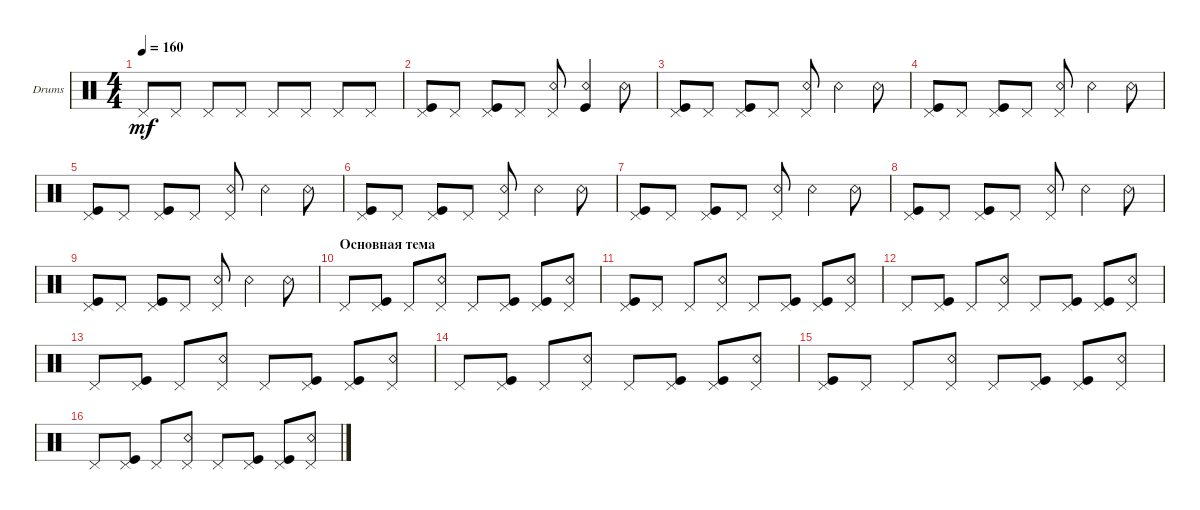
\bracketExtendMode groupsimilarinstruments
\firstSystemTrackNameOrientation horizontal
\otherSystemsTrackNameOrientation horizontal
\track ("Drumkit" "Drums") {instrument percussion}
\staff {score}
\articulation defaults
\ts (4 4)
\tempo 160
\clef neutral
\ks c "Pedal Hi-Hat (hit)".8{dy mf} "Pedal Hi-Hat (hit)".8 "Pedal Hi-Hat (hit)".8 "Pedal Hi-Hat (hit)".8 "Pedal Hi-Hat (hit)".8 "Pedal Hi-Hat (hit)".8 "Pedal Hi-Hat (hit)".8 "Pedal Hi-Hat (hit)".8
|
("Pedal Hi-Hat (hit)" "Kick (hit)").8 "Pedal Hi-Hat (hit)".8 ("Pedal Hi-Hat (hit)" "Kick (hit)").8 "Pedal Hi-Hat (hit)".8 ("Pedal Hi-Hat (hit)" "Snare (rim shot)").8 ("Snare (rim shot)" "Kick (hit)").4 "Snare (rim shot)".8 |
("Pedal Hi-Hat (hit)" "Kick (hit)").8 "Pedal Hi-Hat (hit)".8 ("Pedal Hi-Hat (hit)" "Kick (hit)").8 "Pedal Hi-Hat (hit)".8 ("Pedal Hi-Hat (hit)" "Snare (rim shot)").8 "Snare (rim shot)".4 "Snare (rim shot)".8 |
("Pedal Hi-Hat (hit)" "Kick (hit)").8 "Pedal Hi-Hat (hit)".8 ("Pedal Hi-Hat (hit)" "Kick (hit)").8 "Pedal Hi-Hat (hit)".8 ("Pedal Hi-Hat (hit)" "Snare (rim shot)").8 "Snare (rim shot)".4 "Snare (rim shot)".8 |
("Pedal Hi-Hat (hit)" "Kick (hit)").8 "Pedal Hi-Hat (hit)".8 ("Pedal Hi-Hat (hit)" "Kick (hit)").8 "Pedal Hi-Hat (hit)".8 ("Pedal Hi-Hat (hit)" "Snare (rim shot)").8 "Snare (rim shot)".4 "Snare (rim shot)".8 |
("Pedal Hi-Hat (hit)" "Kick (hit)").8 "Pedal Hi-Hat (hit)".8 ("Pedal Hi-Hat (hit)" "Kick (hit)").8 "Pedal Hi-Hat (hit)".8 ("Pedal Hi-Hat (hit)" "Snare (rim shot)").8 "Snare (rim shot)".4 "Snare (rim shot)".8 |
("Pedal Hi-Hat (hit)" "Kick (hit)").8 "Pedal Hi-Hat (hit)".8 ("Pedal Hi-Hat (hit)" "Kick (hit)").8 "Pedal Hi-Hat (hit)".8 ("Pedal Hi-Hat (hit)" "Snare (rim shot)").8 "Snare (rim shot)".4 "Snare (rim shot)".8 |
("Pedal Hi-Hat (hit)" "Kick (hit)").8 "Pedal Hi-Hat (hit)".8 ("Pedal Hi-Hat (hit)" "Kick (hit)").8 "Pedal Hi-Hat (hit)".8 ("Pedal Hi-Hat (hit)" "Snare (rim shot)").8 "Snare (rim shot)".4 "Snare (rim shot)".8 |
("Pedal Hi-Hat (hit)" "Kick (hit)").8 "Pedal Hi-Hat (hit)".8 ("Pedal Hi-Hat (hit)" "Kick (hit)").8 "Pedal Hi-Hat (hit)".8 ("Pedal Hi-Hat (hit)" "Snare (rim shot)").8 "Snare (rim shot)".4 "Snare (rim shot)".8 |
\section ("" "Основная тема")
"Pedal Hi-Hat (hit)".8 ("Pedal Hi-Hat (hit)" "Kick (hit)").8 "Pedal Hi-Hat (hit)".8 ("Pedal Hi-Hat (hit)" "Snare (rim shot)").8 "Pedal Hi-Hat (hit)".8 ("Pedal Hi-Hat (hit)" "Kick (hit)").8 ("Pedal Hi-Hat (hit)" "Kick (hit)").8 ("Pedal Hi-Hat (hit)" "Snare (rim shot)").8 |
("Pedal Hi-Hat (hit)" "Kick (hit)").8 "Pedal Hi-Hat (hit)".8 "Pedal Hi-Hat (hit)".8 ("Pedal Hi-Hat (hit)" "Snare (rim shot)").8 "Pedal Hi-Hat (hit)".8 ("Pedal Hi-Hat (hit)" "Kick (hit)").8 ("Pedal Hi-Hat (hit)" "Kick (hit)").8 ("Pedal Hi-Hat (hit)" "Snare (rim shot)").8 |
"Pedal Hi-Hat (hit)".8 ("Pedal Hi-Hat (hit)" "Kick (hit)").8 "Pedal Hi-Hat (hit)".8 ("Pedal Hi-Hat (hit)" "Snare (rim shot)").8 "Pedal Hi-Hat (hit)".8 ("Pedal Hi-Hat (hit)" "Kick (hit)").8 ("Pedal Hi-Hat (hit)" "Kick (hit)").8 ("Pedal Hi-Hat (hit)" "Snare (rim shot)").8 |
"Pedal Hi-Hat (hit)".8 ("Pedal Hi-Hat (hit)" "Kick (hit)").8 "Pedal Hi-Hat (hit)".8 ("Pedal Hi-Hat (hit)" "Snare (rim shot)").8 "Pedal Hi-Hat (hit)".8 ("Pedal Hi-Hat (hit)" "Kick (hit)").8 ("Pedal Hi-Hat (hit)" "Kick (hit)").8 ("Pedal Hi-Hat (hit)" "Snare (rim shot)").8 |
"Pedal Hi-Hat (hit)".8 ("Pedal Hi-Hat (hit)" "Kick (hit)").8 "Pedal Hi-Hat (hit)".8 ("Pedal Hi-Hat (hit)" "Snare (rim shot)").8 "Pedal Hi-Hat (hit)".8 ("Pedal Hi-Hat (hit)" "Kick (hit)").8 ("Pedal Hi-Hat (hit)" "Kick (hit)").8 ("Pedal Hi-Hat (hit)" "Snare (rim shot)").8 |
("Pedal Hi-Hat (hit)" "Kick (hit)").8 "Pedal Hi-Hat (hit)".8 "Pedal Hi-Hat (hit)".8 ("Pedal Hi-Hat (hit)" "Snare (rim shot)").8 "Pedal Hi-Hat (hit)".8 ("Pedal Hi-Hat (hit)" "Kick (hit)").8 ("Pedal Hi-Hat (hit)" "Kick (hit)").8 ("Pedal Hi-Hat (hit)" "Snare (rim shot)").8 |
"Pedal Hi-Hat (hit)".8 ("Pedal Hi-Hat (hit)" "Kick (hit)").8 "Pedal Hi-Hat (hit)".8 ("Pedal Hi-Hat (hit)" "Snare (rim shot)").8 "Pedal Hi-Hat (hit)".8 ("Pedal Hi-Hat (hit)" "Kick (hit)").8 ("Pedal Hi-Hat (hit)" "Kick (hit)").8 ("Pedal Hi-Hat (hit)" "Snare (rim shot)").8
